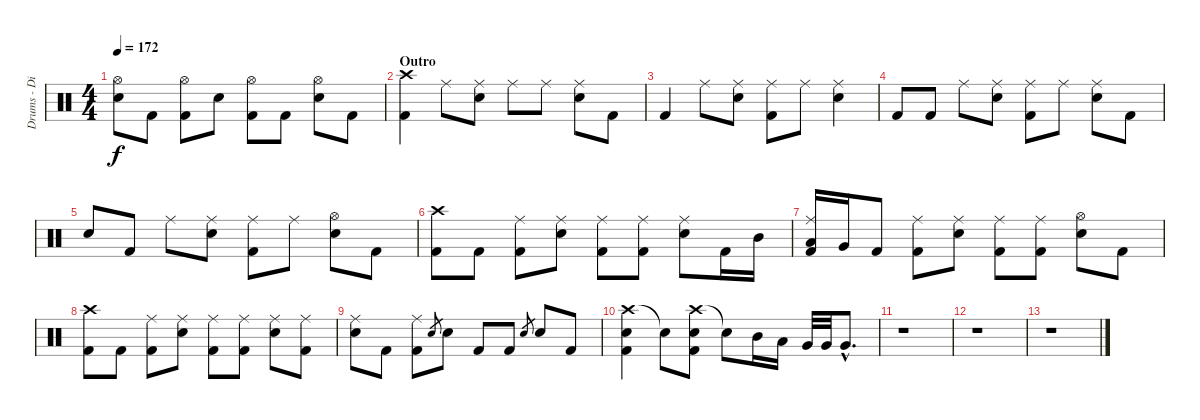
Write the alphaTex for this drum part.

\track ("Drums - Dino Campanella" "Drums - Di") {instrument percussion}
\staff {score}
\articulation defaults
\ts (4 4)
\tempo 172
\clef neutral
\ks c
("Hi-Hat (open)" "Electric Snare (hit)").8{dy f} "Kick (hit) 2".8 ("Hi-Hat (open)" "Kick (hit) 2").8 "Electric Snare (hit)".8 ("Hi-Hat (open)" "Kick (hit) 2").8 "Kick (hit) 2".8 ("Hi-Hat (open)" "Electric Snare (hit)").8 "Kick (hit) 2".8 |
\section ("" "Outro")
("Crash high (hit)" "Kick (hit) 2").4 "Ride (middle)".8 ("Ride (middle)" "Electric Snare (hit)").8 "Ride (middle)".8 "Ride (middle)".8 ("Ride (middle)" "Electric Snare (hit)").8 "Kick (hit) 2".8 |
"Kick (hit) 2".4 "Ride (middle)".8 ("Ride (middle)" "Electric Snare (hit)").8 ("Ride (middle)" "Kick (hit) 2").8 "Ride (middle)".8 ("Ride (middle)" "Electric Snare (hit)").4 |
"Kick (hit) 2".8 "Kick (hit) 2".8 "Ride (middle)".8 ("Ride (middle)" "Electric Snare (hit)").8 ("Ride (middle)" "Kick (hit) 2").8 "Ride (middle)".8 ("Ride (middle)" "Electric Snare (hit)").8 "Kick (hit) 2".8 |
"Electric Snare (hit)".8 "Kick (hit) 2".8 "Ride (middle)".8 ("Ride (middle)" "Electric Snare (hit)").8 ("Ride (middle)" "Kick (hit) 2").8 "Ride (middle)".8 ("Hi-Hat (open)" "Electric Snare (hit)").8 "Kick (hit) 2".8 |
("Crash high (hit)" "Kick (hit) 2").8 "Kick (hit) 2".8 ("Ride (middle)" "Kick (hit) 2").8 ("Ride (middle)" "Electric Snare (hit)").8 ("Ride (middle)" "Kick (hit) 2").8 ("Ride (middle)" "Kick (hit) 2").8 ("Ride (middle)" "Electric Snare (hit)").8 "Kick (hit) 2".16 "Mid Tom (hit)".16 |
("Ride (middle)" "Low Tom (hit)" "Kick (hit) 2").16 "Very Low Tom (hit)".16 "Kick (hit) 2".8 ("Ride (middle)" "Kick (hit) 2").8 ("Ride (middle)" "Electric Snare (hit)").8 ("Ride (middle)" "Kick (hit) 2").8 ("Ride (middle)" "Kick (hit) 2").8 ("Hi-Hat (open)" "Electric Snare (hit)").8 "Kick (hit) 2".8 |
("Crash high (hit)" "Kick (hit) 2").8 "Kick (hit) 2".8 ("Ride (middle)" "Kick (hit) 2").8 ("Ride (middle)" "Electric Snare (hit)").8 ("Ride (middle)" "Kick (hit) 2").8 ("Ride (middle)" "Kick (hit) 2").8 ("Ride (middle)" "Electric Snare (hit)").8 ("Ride (middle)" "Kick (hit) 2").8 |
("Ride (middle)" "Electric Snare (hit)").8 "Kick (hit) 2".8 ("Ride (middle)" "Kick (hit) 2").8 "Electric Snare (hit)".8{gr} "Electric Snare (hit)".8 "Kick (hit) 2".8 "Kick (hit) 2".8 "Electric Snare (hit)".8{gr} "Electric Snare (hit)".8 "Kick (hit) 2".8 |
("Crash high (hit)" "Electric Snare (hit)" "Kick (hit) 2").4 "Snare (hit)"{t}.8 ("Crash high (hit)" "Electric Snare (hit)" "Kick (hit) 2").8 "Snare (hit)"{t}.8 "Mid Tom (hit)".16 "Low Tom (hit)".16 "Very Low Tom (hit)".32 "Very Low Tom (hit)".32 "Very Low Tom (hit)"{hac}.8{d} |
r.1 |
r.1 |
r.1
